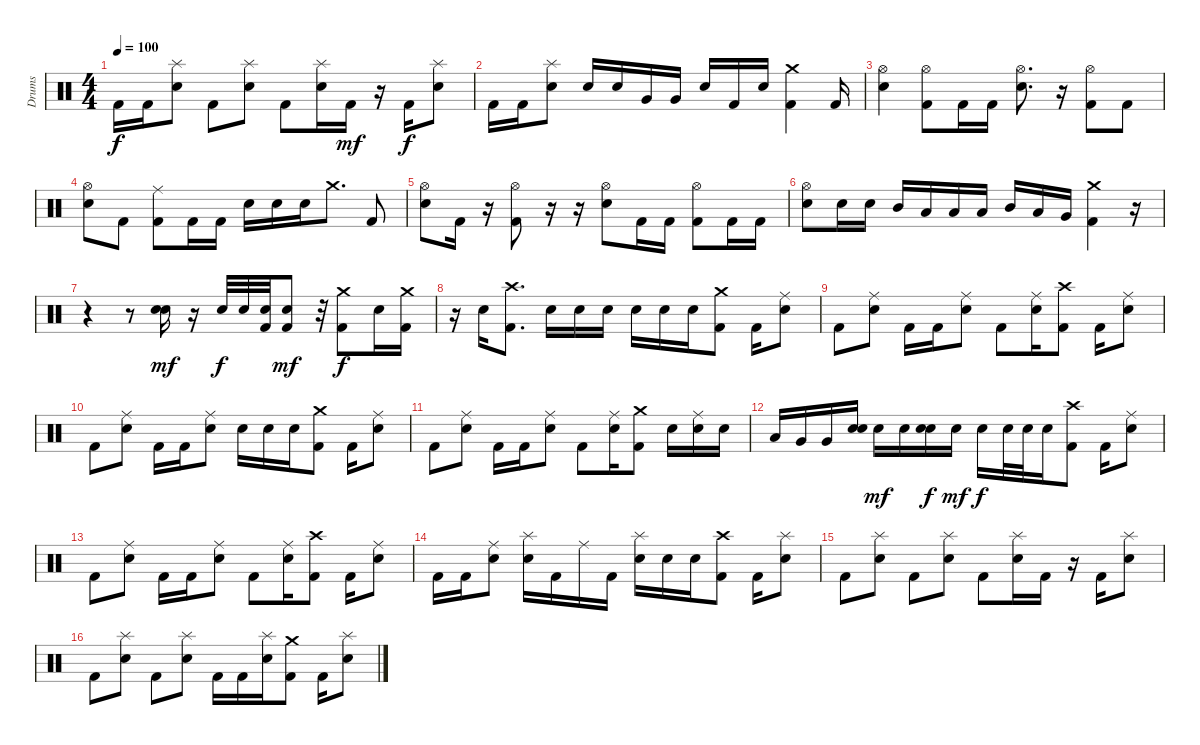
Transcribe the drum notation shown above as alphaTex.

\track ("Drums" "Drums") {instrument percussion}
\staff {score}
\articulation defaults
\ts (4 4)
\tempo 100
\clef neutral
\ks c "Kick (hit) 2".16{dy f} "Kick (hit) 2".16
("Splash (hit)" "Snare (hit) 2").8 "Kick (hit) 2".8 ("Splash (hit)" "Snare (hit) 2").8 "Kick (hit) 2".8 ("Splash (hit)" "Snare (hit) 2").16 "Kick (hit) 2".16{dy mf} r.16 "Kick (hit) 2".16{dy f} ("Splash (hit)" "Snare (hit) 2").8 |
"Kick (hit) 2".16 "Kick (hit) 2".16 ("Splash (hit)" "Snare (hit) 2").8 "Snare (hit) 2".16 "Snare (hit) 2".16 "Very Low Tom (hit)".16 "Very Low Tom (hit)".16 "Snare (hit) 2".16 "Kick (hit) 2".16 "Snare (hit) 2".16 ("Crash medium (hit)" "Kick (hit) 2").4 "Kick (hit) 2".16 |
("Hi-Hat (open)" "Snare (hit) 2").4 ("Hi-Hat (open)" "Kick (hit) 2").8 "Kick (hit) 2".16 "Kick (hit) 2".16 ("Hi-Hat (open)" "Snare (hit) 2").8{d} r.16 ("Hi-Hat (open)" "Kick (hit) 2").8 "Kick (hit) 2".8 |
("Hi-Hat (open)" "Snare (hit) 2").8 "Kick (hit) 2".8 ("Ride (middle)" "Kick (hit) 2").8 "Kick (hit) 2".16 "Kick (hit) 2".16 "Snare (hit) 2".16 "Snare (hit) 2".16 "Snare (hit) 2".16 "Crash medium (hit)".8{d} "Kick (hit) 2".8 |
("Hi-Hat (open)" "Snare (hit) 2").8 "Kick (hit) 2".16 r.16 ("Hi-Hat (open)" "Kick (hit) 2").8 r.16 r.16 ("Hi-Hat (open)" "Snare (hit) 2").8 "Kick (hit) 2".16 "Kick (hit) 2".16 ("Hi-Hat (open)" "Kick (hit) 2").8 "Kick (hit) 2".16 "Kick (hit) 2".16 |
("Hi-Hat (open)" "Snare (hit) 2").8 "Snare (hit) 2".16 "Snare (hit) 2".16 "Mid Tom (hit)".16 "Low Tom (hit)".16 "Low Tom (hit)".16 "Low Tom (hit)".16 "Mid Tom (hit)".16 "Low Tom (hit)".16 "Very Low Tom (hit)".16 ("Crash medium (hit)" "Kick (hit) 2").4 r.16 |
r.4 r.8 ("Snare (hit) 2" "Electric Snare (hit)").16{dy mf} r.16 "Snare (hit) 2".32{dy f} "Snare (hit) 2".32 ("Snare (hit) 2" "Kick (hit) 2").32 ("Snare (hit) 2" "Kick (hit) 2").8{dy mf} r.32 ("Crash medium (hit)" "Kick (hit) 2").8{dy f} "Snare (hit) 2".16 ("Crash medium (hit)" "Kick (hit) 2").16 |
r.16 "Snare (hit) 2".16 ("Crash high (hit)" "Kick (hit) 2").8{d} "Snare (hit) 2".16 "Snare (hit) 2".16 "Snare (hit) 2".16 "Snare (hit) 2".16 "Snare (hit) 2".16 "Snare (hit) 2".16 ("Crash medium (hit)" "Kick (hit) 2").8 "Kick (hit) 2".16 ("Ride (middle)" "Snare (hit) 2").8 |
"Kick (hit) 2".8 ("Ride (middle)" "Snare (hit) 2").8 "Kick (hit) 2".16 "Kick (hit) 2".16 ("Ride (middle)" "Snare (hit) 2").8 "Kick (hit) 2".8 ("Ride (middle)" "Snare (hit) 2").16 ("Crash high (hit)" "Kick (hit) 2").8 "Kick (hit) 2".16 ("Ride (middle)" "Snare (hit) 2").8 |
"Kick (hit) 2".8 ("Ride (middle)" "Snare (hit) 2").8 "Kick (hit) 2".16 "Kick (hit) 2".16 ("Ride (middle)" "Snare (hit) 2").8 "Snare (hit) 2".16 "Snare (hit) 2".16 "Snare (hit) 2".16 ("Crash medium (hit)" "Kick (hit) 2").8 "Kick (hit) 2".16 ("Ride (middle)" "Snare (hit) 2").8 |
"Kick (hit) 2".8 ("Ride (middle)" "Snare (hit) 2").8 "Kick (hit) 2".16 "Kick (hit) 2".16 ("Ride (middle)" "Snare (hit) 2").8 "Kick (hit) 2".8 ("Ride (middle)" "Snare (hit) 2").16 ("Crash medium (hit)" "Kick (hit) 2").8 "Snare (hit) 2".16 ("Ride (middle)" "Snare (hit) 2").16 "Snare (hit) 2".16 |
"Low Tom (hit)".16 "Very Low Tom (hit)".16 "Very Low Tom (hit)".16 ("Electric Snare (hit)" "Snare (hit) 2").16 "Snare (hit) 2".16{dy mf} "Snare (hit) 2".16 ("Electric Snare (hit)" "Snare (hit) 2").16{dy f} "Snare (hit) 2".16{dy mf} "Snare (hit) 2".16{dy f} "Snare (hit) 2".32 "Snare (hit) 2".32 "Snare (hit) 2".16 ("Crash high (hit)" "Kick (hit) 2").8 "Kick (hit) 2".16 ("Ride (middle)" "Snare (hit) 2").8 |
"Kick (hit) 2".8 ("Ride (middle)" "Snare (hit) 2").8 "Kick (hit) 2".16 "Kick (hit) 2".16 ("Ride (middle)" "Snare (hit) 2").8 "Kick (hit) 2".8 ("Ride (middle)" "Snare (hit) 2").16 ("Crash high (hit)" "Kick (hit) 2").8 "Kick (hit) 2".16 ("Ride (middle)" "Snare (hit) 2").8 |
"Kick (hit) 2".16 "Kick (hit) 2".16 ("Ride (middle)" "Snare (hit) 2").8 ("Splash (hit)" "Snare (hit) 2").16 "Kick (hit) 2".16 "Ride (middle)".16 "Kick (hit) 2".16 ("Splash (hit)" "Snare (hit) 2").16 "Snare (hit) 2".16 "Snare (hit) 2".16 ("Crash high (hit)" "Kick (hit) 2").8 "Kick (hit) 2".16 ("Splash (hit)" "Snare (hit) 2").8 |
"Kick (hit) 2".8 ("Splash (hit)" "Snare (hit) 2").8 "Kick (hit) 2".8 ("Splash (hit)" "Snare (hit) 2").8 "Kick (hit) 2".8 ("Splash (hit)" "Snare (hit) 2").16 "Kick (hit) 2".16 r.16 "Kick (hit) 2".16 ("Splash (hit)" "Snare (hit) 2").8 |
"Kick (hit) 2".8 ("Splash (hit)" "Snare (hit) 2").8 "Kick (hit) 2".8 ("Splash (hit)" "Snare (hit) 2").8 "Kick (hit) 2".16 "Kick (hit) 2".16 ("Splash (hit)" "Snare (hit) 2").16 ("Crash medium (hit)" "Kick (hit) 2").8 "Kick (hit) 2".16 ("Splash (hit)" "Snare (hit) 2").8
